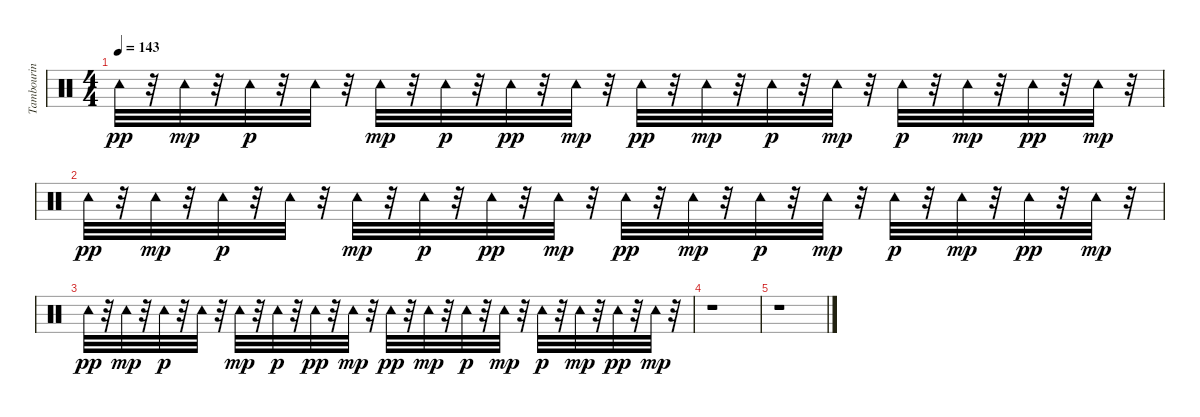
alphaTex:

\track ("Tambourin" "Tambourin") {instrument percussion}
\staff {score}
\articulation defaults
\ts (4 4)
\tempo 143
\clef neutral
\ks c "Tambourine (hit)".32{dy pp}
r.32 "Tambourine (hit)".32{dy mp} r.32 "Tambourine (hit)".32{dy p} r.32 "Tambourine (hit)".32 r.32 "Tambourine (hit)".32{dy mp} r.32 "Tambourine (hit)".32{dy p} r.32 "Tambourine (hit)".32{dy pp} r.32 "Tambourine (hit)".32{dy mp} r.32 "Tambourine (hit)".32{dy pp} r.32 "Tambourine (hit)".32{dy mp} r.32 "Tambourine (hit)".32{dy p} r.32 "Tambourine (hit)".32{dy mp} r.32 "Tambourine (hit)".32{dy p} r.32 "Tambourine (hit)".32{dy mp} r.32 "Tambourine (hit)".32{dy pp} r.32 "Tambourine (hit)".32{dy mp} r.32 |
"Tambourine (hit)".32{dy pp} r.32 "Tambourine (hit)".32{dy mp} r.32 "Tambourine (hit)".32{dy p} r.32 "Tambourine (hit)".32 r.32 "Tambourine (hit)".32{dy mp} r.32 "Tambourine (hit)".32{dy p} r.32 "Tambourine (hit)".32{dy pp} r.32 "Tambourine (hit)".32{dy mp} r.32 "Tambourine (hit)".32{dy pp} r.32 "Tambourine (hit)".32{dy mp} r.32 "Tambourine (hit)".32{dy p} r.32 "Tambourine (hit)".32{dy mp} r.32 "Tambourine (hit)".32{dy p} r.32 "Tambourine (hit)".32{dy mp} r.32 "Tambourine (hit)".32{dy pp} r.32 "Tambourine (hit)".32{dy mp} r.32 |
"Tambourine (hit)".32{dy pp} r.32 "Tambourine (hit)".32{dy mp} r.32 "Tambourine (hit)".32{dy p} r.32 "Tambourine (hit)".32 r.32 "Tambourine (hit)".32{dy mp} r.32 "Tambourine (hit)".32{dy p} r.32 "Tambourine (hit)".32{dy pp} r.32 "Tambourine (hit)".32{dy mp} r.32 "Tambourine (hit)".32{dy pp} r.32 "Tambourine (hit)".32{dy mp} r.32 "Tambourine (hit)".32{dy p} r.32 "Tambourine (hit)".32{dy mp} r.32 "Tambourine (hit)".32{dy p} r.32 "Tambourine (hit)".32{dy mp} r.32 "Tambourine (hit)".32{dy pp} r.32 "Tambourine (hit)".32{dy mp} r.32 |
r.1 |
r.1
